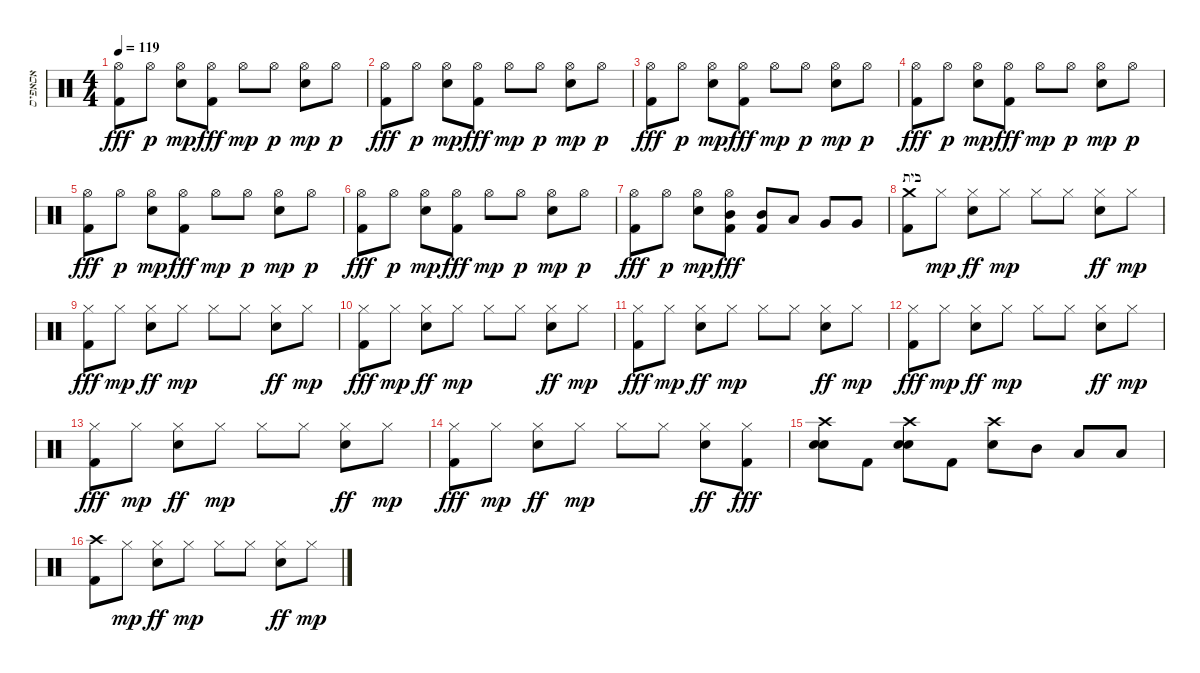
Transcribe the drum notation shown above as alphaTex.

\track ("אסאפיס" "אסאפיס") {instrument percussion}
\staff {score}
\articulation defaults
\ts (4 4)
\tempo 119
\clef neutral
\ks c
("Hi-Hat (open)" "Kick (hit) 2").8{dy fff} "Hi-Hat (open)".8{dy p} ("Hi-Hat (open)" "Snare (hit) 2").8{dy mp} ("Hi-Hat (open)" "Kick (hit) 2").8{dy fff} "Hi-Hat (open)".8{dy mp} "Hi-Hat (open)".8{dy p} ("Hi-Hat (open)" "Snare (hit) 2").8{dy mp} "Hi-Hat (open)".8{dy p} |
("Hi-Hat (open)" "Kick (hit) 2").8{dy fff} "Hi-Hat (open)".8{dy p} ("Hi-Hat (open)" "Snare (hit) 2").8{dy mp} ("Hi-Hat (open)" "Kick (hit) 2").8{dy fff} "Hi-Hat (open)".8{dy mp} "Hi-Hat (open)".8{dy p} ("Hi-Hat (open)" "Snare (hit) 2").8{dy mp} "Hi-Hat (open)".8{dy p} |
("Hi-Hat (open)" "Kick (hit) 2").8{dy fff} "Hi-Hat (open)".8{dy p} ("Hi-Hat (open)" "Snare (hit) 2").8{dy mp} ("Hi-Hat (open)" "Kick (hit) 2").8{dy fff} "Hi-Hat (open)".8{dy mp} "Hi-Hat (open)".8{dy p} ("Hi-Hat (open)" "Snare (hit) 2").8{dy mp} "Hi-Hat (open)".8{dy p} |
("Hi-Hat (open)" "Kick (hit) 2").8{dy fff} "Hi-Hat (open)".8{dy p} ("Hi-Hat (open)" "Snare (hit) 2").8{dy mp} ("Hi-Hat (open)" "Kick (hit) 2").8{dy fff} "Hi-Hat (open)".8{dy mp} "Hi-Hat (open)".8{dy p} ("Hi-Hat (open)" "Snare (hit) 2").8{dy mp} "Hi-Hat (open)".8{dy p} |
("Hi-Hat (open)" "Kick (hit) 2").8{dy fff} "Hi-Hat (open)".8{dy p} ("Hi-Hat (open)" "Snare (hit) 2").8{dy mp} ("Hi-Hat (open)" "Kick (hit) 2").8{dy fff} "Hi-Hat (open)".8{dy mp} "Hi-Hat (open)".8{dy p} ("Hi-Hat (open)" "Snare (hit) 2").8{dy mp} "Hi-Hat (open)".8{dy p} |
("Hi-Hat (open)" "Kick (hit) 2").8{dy fff} "Hi-Hat (open)".8{dy p} ("Hi-Hat (open)" "Snare (hit) 2").8{dy mp} ("Hi-Hat (open)" "Kick (hit) 2").8{dy fff} "Hi-Hat (open)".8{dy mp} "Hi-Hat (open)".8{dy p} ("Hi-Hat (open)" "Snare (hit) 2").8{dy mp} "Hi-Hat (open)".8{dy p} |
("Hi-Hat (open)" "Kick (hit) 2").8{dy fff} "Hi-Hat (open)".8{dy p} ("Hi-Hat (open)" "Snare (hit) 2").8{dy mp} ("Hi-Hat (open)" "Mid Tom (hit)" "Kick (hit) 2").8{dy fff} ("Mid Tom (hit)" "Kick (hit) 2").8 "Low Tom (hit)".8 "Very Low Tom (hit)".8 "Very Low Tom (hit)".8 |
\section ("" "בית")
("Crash medium (hit)" "Kick (hit) 2").8 "Hi-Hat (closed)".8{dy mp} ("Hi-Hat (closed)" "Snare (hit) 2").8{dy ff} "Hi-Hat (closed)".8{dy mp} "Hi-Hat (closed)".8 "Hi-Hat (closed)".8 ("Hi-Hat (closed)" "Snare (hit) 2").8{dy ff} "Hi-Hat (closed)".8{dy mp} |
("Hi-Hat (closed)" "Kick (hit) 2").8{dy fff} "Hi-Hat (closed)".8{dy mp} ("Hi-Hat (closed)" "Snare (hit) 2").8{dy ff} "Hi-Hat (closed)".8{dy mp} "Hi-Hat (closed)".8 "Hi-Hat (closed)".8 ("Hi-Hat (closed)" "Snare (hit) 2").8{dy ff} "Hi-Hat (closed)".8{dy mp} |
("Hi-Hat (closed)" "Kick (hit) 2").8{dy fff} "Hi-Hat (closed)".8{dy mp} ("Hi-Hat (closed)" "Snare (hit) 2").8{dy ff} "Hi-Hat (closed)".8{dy mp} "Hi-Hat (closed)".8 "Hi-Hat (closed)".8 ("Hi-Hat (closed)" "Snare (hit) 2").8{dy ff} "Hi-Hat (closed)".8{dy mp} |
("Hi-Hat (closed)" "Kick (hit) 2").8{dy fff} "Hi-Hat (closed)".8{dy mp} ("Hi-Hat (closed)" "Snare (hit) 2").8{dy ff} "Hi-Hat (closed)".8{dy mp} "Hi-Hat (closed)".8 "Hi-Hat (closed)".8 ("Hi-Hat (closed)" "Snare (hit) 2").8{dy ff} "Hi-Hat (closed)".8{dy mp} |
("Hi-Hat (closed)" "Kick (hit) 2").8{dy fff} "Hi-Hat (closed)".8{dy mp} ("Hi-Hat (closed)" "Snare (hit) 2").8{dy ff} "Hi-Hat (closed)".8{dy mp} "Hi-Hat (closed)".8 "Hi-Hat (closed)".8 ("Hi-Hat (closed)" "Snare (hit) 2").8{dy ff} "Hi-Hat (closed)".8{dy mp} |
("Hi-Hat (closed)" "Kick (hit) 2").8{dy fff} "Hi-Hat (closed)".8{dy mp} ("Hi-Hat (closed)" "Snare (hit) 2").8{dy ff} "Hi-Hat (closed)".8{dy mp} "Hi-Hat (closed)".8 "Hi-Hat (closed)".8 ("Hi-Hat (closed)" "Snare (hit) 2").8{dy ff} "Hi-Hat (closed)".8{dy mp} |
("Hi-Hat (closed)" "Kick (hit) 2").8{dy fff} "Hi-Hat (closed)".8{dy mp} ("Hi-Hat (closed)" "Snare (hit) 2").8{dy ff} "Hi-Hat (closed)".8{dy mp} "Hi-Hat (closed)".8 "Hi-Hat (closed)".8 ("Hi-Hat (closed)" "Snare (hit) 2").8{dy ff} ("Hi-Hat (closed)" "Kick (hit) 2").8{dy fff} |
("Crash high (hit)" "Snare (hit) 2" "Snare (hit) 2").8 "Kick (hit) 2".8 ("Crash high (hit)" "Snare (hit) 2" "Snare (hit) 2").8 "Kick (hit) 2".8 ("Crash high (hit)" "Snare (hit) 2").8 "Mid Tom (hit)".8 "Low Tom (hit)".8 "Low Tom (hit)".8 |
("Crash high (hit)" "Kick (hit) 2").8 "Hi-Hat (closed)".8{dy mp} ("Hi-Hat (closed)" "Snare (hit) 2").8{dy ff} "Hi-Hat (closed)".8{dy mp} "Hi-Hat (closed)".8 "Hi-Hat (closed)".8 ("Hi-Hat (closed)" "Snare (hit) 2").8{dy ff} "Hi-Hat (closed)".8{dy mp}
